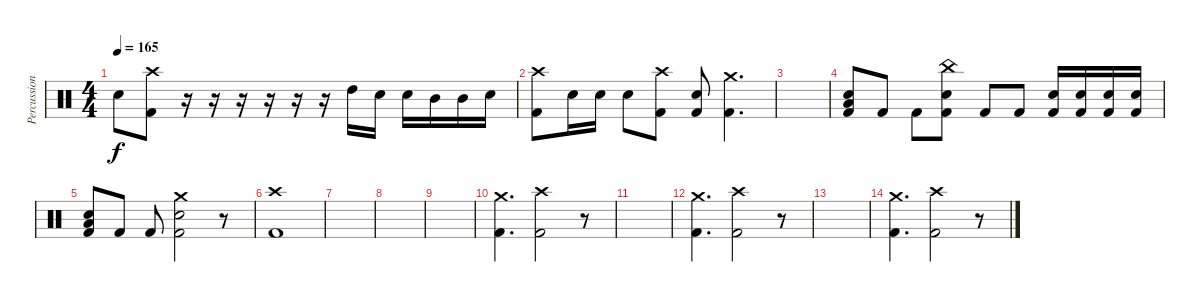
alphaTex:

\track ("Percussion" "Percussion") {instrument percussion}
\staff {score}
\articulation defaults
\ts (4 4)
\tempo 165
\clef neutral
\ks c "Snare (hit) 2".8{dy f}
("Kick (hit) 2" "Crash high (hit)").8 r.16 r.16 r.16 r.16 r.16 r.16 "High Tom (hit)".16 "Snare (hit) 2".16 "Snare (hit) 2".16 "Mid Tom (hit)".16 "Mid Tom (hit)".16 "Snare (hit) 2".16 |
("Kick (hit) 2" "Crash high (hit)").8 "Snare (hit) 2".16 "Snare (hit) 2".16 "Snare (hit) 2".8 ("Kick (hit) 2" "Crash high (hit)").8 ("Snare (hit) 2" "Kick (hit) 2").8 ("Kick (hit) 2" "Crash medium (hit)").4{d} |
|
("Kick (hit) 2" "Low Tom (hit)" "Snare (hit) 2").8 "Kick (hit) 2".8 "Kick (hit) 2".8 ("Kick (hit) 2" "Snare (hit) 2" "China (hit)").8 "Kick (hit) 2".8 "Kick (hit) 2".8 ("Kick (hit) 2" "Snare (hit) 2").16 ("Kick (hit) 2" "Snare (hit) 2").16 ("Kick (hit) 2" "Snare (hit) 2").16 ("Kick (hit) 2" "Snare (hit) 2").16 |
("Kick (hit) 2" "Low Tom (hit)" "Snare (hit) 2").8 "Kick (hit) 2".8 "Kick (hit) 2".8 ("Kick (hit) 2" "Snare (hit) 2" "Crash medium (hit)").2 r.8 |
("Kick (hit) 2" "Crash high (hit)").1 |
|
|
|
("Kick (hit) 2" "Crash medium (hit)").4{d} ("Kick (hit) 2" "Crash high (hit)").2 r.8 |
|
("Kick (hit) 2" "Crash medium (hit)").4{d} ("Kick (hit) 2" "Crash high (hit)").2 r.8 |
|
("Kick (hit) 2" "Crash medium (hit)").4{d} ("Kick (hit) 2" "Crash high (hit)").2 r.8
